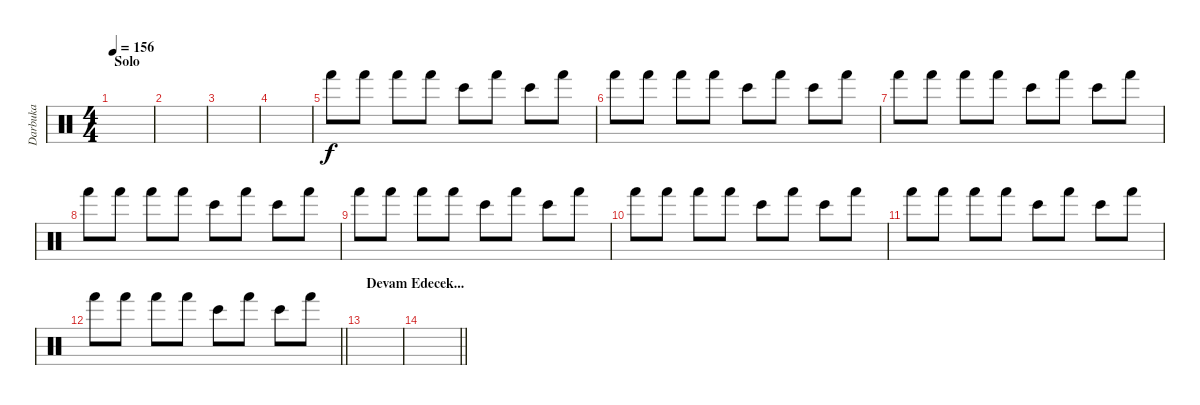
\track ("Darbuka" "Darbuka") {instrument percussion}
\staff {score}
\articulation defaults
\ts (4 4)
\section ("" "Solo")
\tempo 156
\clef neutral
\ks c
|
|
|
|
"Hand (hit)".8 "Hand (hit)".8 "Hand (hit)".8 "Hand (hit)".8 "Bongo High (hit)".8 "Hand (hit)".8 "Bongo High (hit)".8 "Hand (hit)".8 |
"Hand (hit)".8 "Hand (hit)".8 "Hand (hit)".8 "Hand (hit)".8 "Bongo High (hit)".8 "Hand (hit)".8 "Bongo High (hit)".8 "Hand (hit)".8 |
"Hand (hit)".8 "Hand (hit)".8 "Hand (hit)".8 "Hand (hit)".8 "Bongo High (hit)".8 "Hand (hit)".8 "Bongo High (hit)".8 "Hand (hit)".8 |
"Hand (hit)".8 "Hand (hit)".8 "Hand (hit)".8 "Hand (hit)".8 "Bongo High (hit)".8 "Hand (hit)".8 "Bongo High (hit)".8 "Hand (hit)".8 |
"Hand (hit)".8 "Hand (hit)".8 "Hand (hit)".8 "Hand (hit)".8 "Bongo High (hit)".8 "Hand (hit)".8 "Bongo High (hit)".8 "Hand (hit)".8 |
"Hand (hit)".8 "Hand (hit)".8 "Hand (hit)".8 "Hand (hit)".8 "Bongo High (hit)".8 "Hand (hit)".8 "Bongo High (hit)".8 "Hand (hit)".8 |
"Hand (hit)".8 "Hand (hit)".8 "Hand (hit)".8 "Hand (hit)".8 "Bongo High (hit)".8 "Hand (hit)".8 "Bongo High (hit)".8 "Hand (hit)".8 |
\barLineRight lightlight "Hand (hit)".8 "Hand (hit)".8 "Hand (hit)".8 "Hand (hit)".8 "Bongo High (hit)".8 "Hand (hit)".8 "Bongo High (hit)".8 "Hand (hit)".8
|
\section ("" "Devam Edecek...")
|
\barLineRight lightlight
